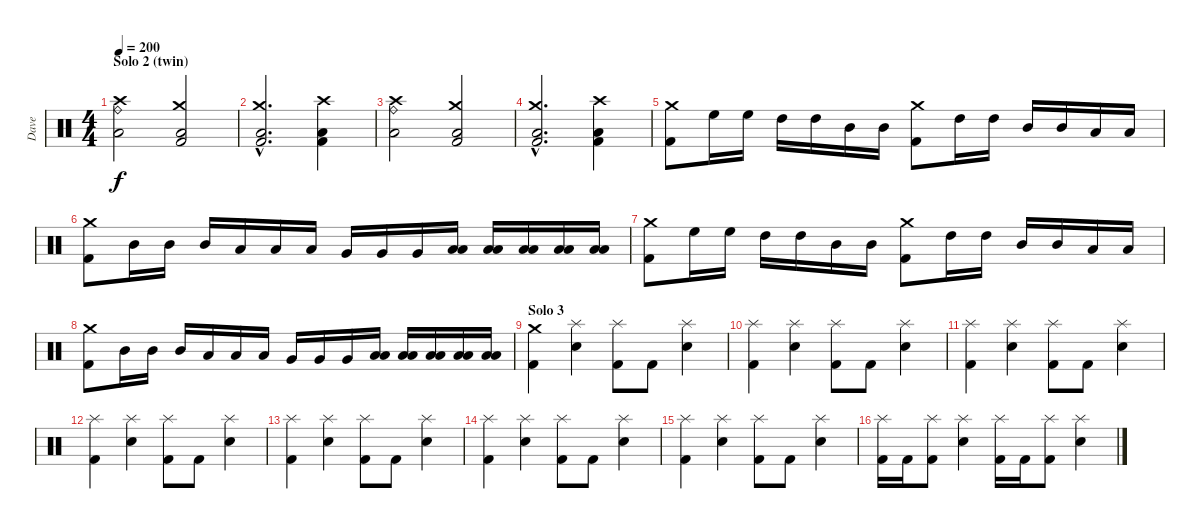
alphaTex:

\track ("Dave" "Dave") {instrument percussion}
\staff {score}
\articulation defaults
\ts (4 4)
\section ("" "Solo 2 (twin)")
\tempo 200
\clef neutral
\ks c
("Crash high (hit)" "Ride (bell)" "Low Floor Tom (hit)").2{dy f} ("Crash medium (hit)" "Kick (hit) 2" "Low Floor Tom (hit)").2 |
("Crash medium (hit)"{hac} "Kick (hit) 2"{hac} "Low Floor Tom (hit)"{hac}).2{d} ("Crash high (hit)" "Kick (hit) 2" "Low Floor Tom (hit)").4 |
("Crash high (hit)" "Ride (bell)" "Low Floor Tom (hit)").2 ("Crash medium (hit)" "Kick (hit) 2" "Low Floor Tom (hit)").2 |
("Crash medium (hit)"{hac} "Kick (hit) 2"{hac} "Low Floor Tom (hit)"{hac}).2{d} ("Crash high (hit)" "Kick (hit) 2" "Low Floor Tom (hit)").4 |
("Crash medium (hit)" "Kick (hit) 2").8 "High Floor Tom (hit)".16 "High Floor Tom (hit)".16 "High Tom (hit)".16 "High Tom (hit)".16 "Mid Tom (hit)".16 "Mid Tom (hit)".16 ("Crash medium (hit)" "Kick (hit) 2").8 "High Tom (hit)".16 "High Tom (hit)".16 "Mid Tom (hit)".16 "Mid Tom (hit)".16 "Low Tom (hit)".16 "Low Tom (hit)".16 |
("Crash medium (hit)" "Kick (hit) 2").8 "Mid Tom (hit)".16 "Mid Tom (hit)".16 "Mid Tom (hit)".16 "Low Tom (hit)".16 "Low Tom (hit)".16 "Low Tom (hit)".16 "Very Low Tom (hit)".16 "Very Low Tom (hit)".16 "Very Low Tom (hit)".16 ("Low Floor Tom (hit)" "Low Floor Tom (hit)").16 ("Low Floor Tom (hit)" "Low Floor Tom (hit)").16 ("Low Floor Tom (hit)" "Low Floor Tom (hit)").16 ("Low Floor Tom (hit)" "Low Floor Tom (hit)").16 ("Low Floor Tom (hit)" "Low Floor Tom (hit)").16 |
("Crash medium (hit)" "Kick (hit) 2").8 "High Floor Tom (hit)".16 "High Floor Tom (hit)".16 "High Tom (hit)".16 "High Tom (hit)".16 "Mid Tom (hit)".16 "Mid Tom (hit)".16 ("Crash medium (hit)" "Kick (hit) 2").8 "High Tom (hit)".16 "High Tom (hit)".16 "Mid Tom (hit)".16 "Mid Tom (hit)".16 "Low Tom (hit)".16 "Low Tom (hit)".16 |
("Crash medium (hit)" "Kick (hit) 2").8 "Mid Tom (hit)".16 "Mid Tom (hit)".16 "Mid Tom (hit)".16 "Low Tom (hit)".16 "Low Tom (hit)".16 "Low Tom (hit)".16 "Very Low Tom (hit)".16 "Very Low Tom (hit)".16 "Very Low Tom (hit)".16 ("Low Floor Tom (hit)" "Low Floor Tom (hit)").16 ("Low Floor Tom (hit)" "Low Floor Tom (hit)").16 ("Low Floor Tom (hit)" "Low Floor Tom (hit)").16 ("Low Floor Tom (hit)" "Low Floor Tom (hit)").16 ("Low Floor Tom (hit)" "Low Floor Tom (hit)").16 |
\section ("" "Solo 3")
("Crash medium (hit)" "Kick (hit) 2").4 ("Splash (hit)" "Snare (hit) 2").4 ("Splash (hit)" "Kick (hit) 2").8 "Kick (hit) 2".8 ("Splash (hit)" "Snare (hit) 2").4 |
("Splash (hit)" "Kick (hit) 2").4 ("Splash (hit)" "Snare (hit) 2").4 ("Splash (hit)" "Kick (hit) 2").8 "Kick (hit) 2".8 ("Splash (hit)" "Snare (hit) 2").4 |
("Splash (hit)" "Kick (hit) 2").4 ("Splash (hit)" "Snare (hit) 2").4 ("Splash (hit)" "Kick (hit) 2").8 "Kick (hit) 2".8 ("Splash (hit)" "Snare (hit) 2").4 |
("Splash (hit)" "Kick (hit) 2").4 ("Splash (hit)" "Snare (hit) 2").4 ("Splash (hit)" "Kick (hit) 2").8 "Kick (hit) 2".8 ("Splash (hit)" "Snare (hit) 2").4 |
("Splash (hit)" "Kick (hit) 2").4 ("Splash (hit)" "Snare (hit) 2").4 ("Splash (hit)" "Kick (hit) 2").8 "Kick (hit) 2".8 ("Splash (hit)" "Snare (hit) 2").4 |
("Splash (hit)" "Kick (hit) 2").4 ("Splash (hit)" "Snare (hit) 2").4 ("Splash (hit)" "Kick (hit) 2").8 "Kick (hit) 2".8 ("Splash (hit)" "Snare (hit) 2").4 |
("Splash (hit)" "Kick (hit) 2").4 ("Splash (hit)" "Snare (hit) 2").4 ("Splash (hit)" "Kick (hit) 2").8 "Kick (hit) 2".8 ("Splash (hit)" "Snare (hit) 2").4 |
("Splash (hit)" "Kick (hit) 2").16 "Kick (hit) 2".16 ("Splash (hit)" "Kick (hit) 2").8 ("Splash (hit)" "Snare (hit) 2").4 ("Splash (hit)" "Kick (hit) 2").16 "Kick (hit) 2".16 ("Splash (hit)" "Kick (hit) 2").8 ("Splash (hit)" "Snare (hit) 2").4
